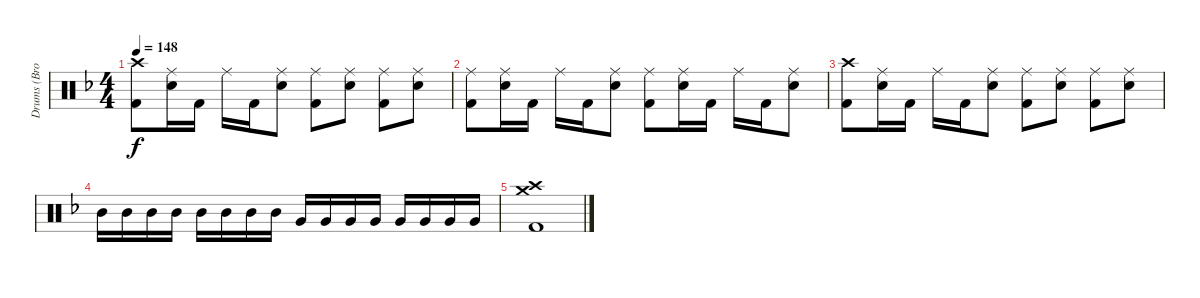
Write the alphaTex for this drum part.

\track ("Drums (Brooks Wackerman)" "Drums (Bro") {instrument percussion}
\staff {score}
\articulation defaults
\ts (4 4)
\tempo 148
\clef neutral
\ks f
("Crash high (hit)" "Kick (hit) 2").8{dy f} ("Ride (middle)" "Snare (hit) 2").16 "Kick (hit) 2".16 "Ride (middle)".16 "Kick (hit) 2".16 ("Ride (middle)" "Snare (hit) 2").8 ("Ride (middle)" "Kick (hit) 2").8 ("Ride (middle)" "Snare (hit) 2").8 ("Ride (middle)" "Kick (hit) 2").8 ("Ride (middle)" "Snare (hit) 2").8 |
("Ride (middle)" "Kick (hit) 2").8 ("Ride (middle)" "Snare (hit) 2").16 "Kick (hit) 2".16 "Ride (middle)".16 "Kick (hit) 2".16 ("Ride (middle)" "Snare (hit) 2").8 ("Ride (middle)" "Kick (hit) 2").8 ("Ride (middle)" "Snare (hit) 2").16 "Kick (hit) 2".16 "Ride (middle)".16 "Kick (hit) 2".16 ("Ride (middle)" "Snare (hit) 2").8 |
("Crash high (hit)" "Kick (hit) 2").8 ("Ride (middle)" "Snare (hit) 2").16 "Kick (hit) 2".16 "Ride (middle)".16 "Kick (hit) 2".16 ("Ride (middle)" "Snare (hit) 2").8 ("Ride (middle)" "Kick (hit) 2").8 ("Ride (middle)" "Snare (hit) 2").8 ("Ride (middle)" "Kick (hit) 2").8 ("Ride (middle)" "Snare (hit) 2").8 |
"Mid Tom (hit)".16 "Mid Tom (hit)".16 "Mid Tom (hit)".16 "Mid Tom (hit)".16 "Mid Tom (hit)".16 "Mid Tom (hit)".16 "Mid Tom (hit)".16 "Mid Tom (hit)".16 "Very Low Tom (hit)".16 "Very Low Tom (hit)".16 "Very Low Tom (hit)".16 "Very Low Tom (hit)".16 "Very Low Tom (hit)".16 "Very Low Tom (hit)".16 "Very Low Tom (hit)".16 "Very Low Tom (hit)".16 |
("Crash high (hit)" "Crash medium (hit)" "Kick (hit) 2").1
